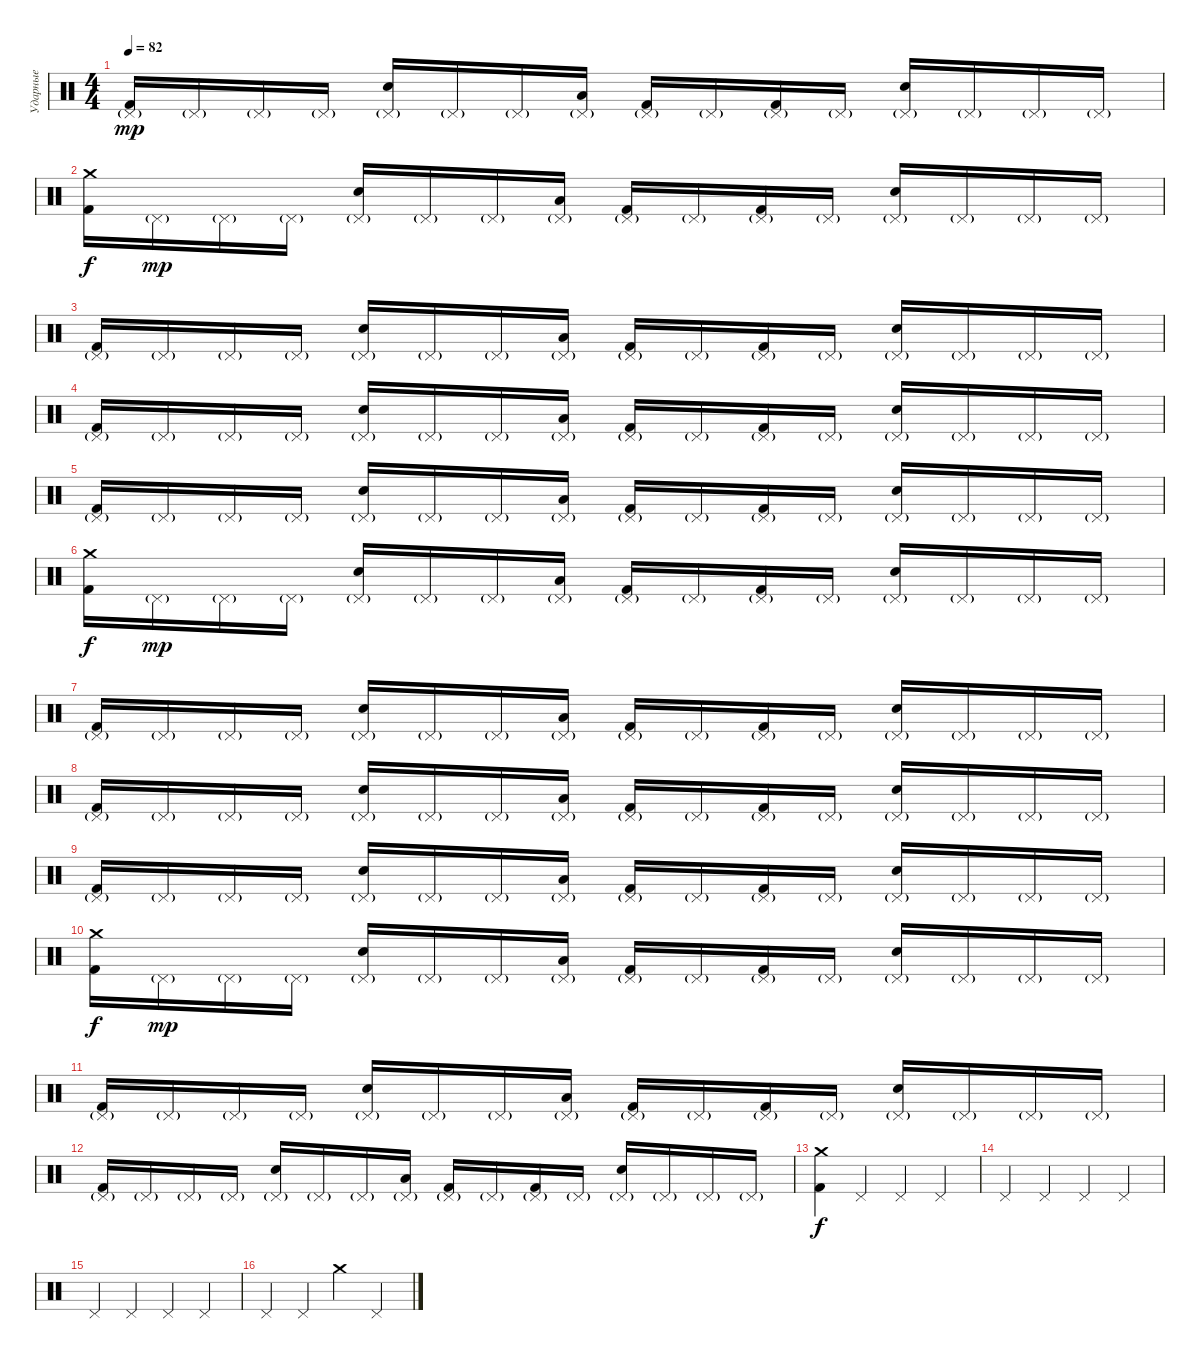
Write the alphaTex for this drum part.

\track ("Ударные" "Ударные") {instrument percussion}
\staff {score}
\articulation defaults
\ts (4 4)
\tempo 82
\clef neutral
\ks c
("Pedal Hi-Hat (hit)"{g} "Kick (hit) 2").16{dy mp} "Pedal Hi-Hat (hit)"{g}.16 "Pedal Hi-Hat (hit)"{g}.16 "Pedal Hi-Hat (hit)"{g}.16 ("Pedal Hi-Hat (hit)"{g} "Electric Snare (hit)").16 "Pedal Hi-Hat (hit)"{g}.16 "Pedal Hi-Hat (hit)"{g}.16 ("Pedal Hi-Hat (hit)"{g} "Low Floor Tom (hit)").16 ("Pedal Hi-Hat (hit)"{g} "Kick (hit) 2").16 "Pedal Hi-Hat (hit)"{g}.16 ("Pedal Hi-Hat (hit)"{g} "Kick (hit) 2").16 "Pedal Hi-Hat (hit)"{g}.16 ("Pedal Hi-Hat (hit)"{g} "Electric Snare (hit)").16 "Pedal Hi-Hat (hit)"{g}.16 "Pedal Hi-Hat (hit)"{g}.16 "Pedal Hi-Hat (hit)"{g}.16 |
("Crash medium (hit)" "Kick (hit) 2").16{dy f} "Pedal Hi-Hat (hit)"{g}.16{dy mp} "Pedal Hi-Hat (hit)"{g}.16 "Pedal Hi-Hat (hit)"{g}.16 ("Pedal Hi-Hat (hit)"{g} "Electric Snare (hit)").16 "Pedal Hi-Hat (hit)"{g}.16 "Pedal Hi-Hat (hit)"{g}.16 ("Pedal Hi-Hat (hit)"{g} "Low Floor Tom (hit)").16 ("Pedal Hi-Hat (hit)"{g} "Kick (hit) 2").16 "Pedal Hi-Hat (hit)"{g}.16 ("Pedal Hi-Hat (hit)"{g} "Kick (hit) 2").16 "Pedal Hi-Hat (hit)"{g}.16 ("Pedal Hi-Hat (hit)"{g} "Electric Snare (hit)").16 "Pedal Hi-Hat (hit)"{g}.16 "Pedal Hi-Hat (hit)"{g}.16 "Pedal Hi-Hat (hit)"{g}.16 |
("Pedal Hi-Hat (hit)"{g} "Kick (hit) 2").16 "Pedal Hi-Hat (hit)"{g}.16 "Pedal Hi-Hat (hit)"{g}.16 "Pedal Hi-Hat (hit)"{g}.16 ("Pedal Hi-Hat (hit)"{g} "Electric Snare (hit)").16 "Pedal Hi-Hat (hit)"{g}.16 "Pedal Hi-Hat (hit)"{g}.16 ("Pedal Hi-Hat (hit)"{g} "Low Floor Tom (hit)").16 ("Pedal Hi-Hat (hit)"{g} "Kick (hit) 2").16 "Pedal Hi-Hat (hit)"{g}.16 ("Pedal Hi-Hat (hit)"{g} "Kick (hit) 2").16 "Pedal Hi-Hat (hit)"{g}.16 ("Pedal Hi-Hat (hit)"{g} "Electric Snare (hit)").16 "Pedal Hi-Hat (hit)"{g}.16 "Pedal Hi-Hat (hit)"{g}.16 "Pedal Hi-Hat (hit)"{g}.16 |
("Pedal Hi-Hat (hit)"{g} "Kick (hit) 2").16 "Pedal Hi-Hat (hit)"{g}.16 "Pedal Hi-Hat (hit)"{g}.16 "Pedal Hi-Hat (hit)"{g}.16 ("Pedal Hi-Hat (hit)"{g} "Electric Snare (hit)").16 "Pedal Hi-Hat (hit)"{g}.16 "Pedal Hi-Hat (hit)"{g}.16 ("Pedal Hi-Hat (hit)"{g} "Low Floor Tom (hit)").16 ("Pedal Hi-Hat (hit)"{g} "Kick (hit) 2").16 "Pedal Hi-Hat (hit)"{g}.16 ("Pedal Hi-Hat (hit)"{g} "Kick (hit) 2").16 "Pedal Hi-Hat (hit)"{g}.16 ("Pedal Hi-Hat (hit)"{g} "Electric Snare (hit)").16 "Pedal Hi-Hat (hit)"{g}.16 "Pedal Hi-Hat (hit)"{g}.16 "Pedal Hi-Hat (hit)"{g}.16 |
("Pedal Hi-Hat (hit)"{g} "Kick (hit) 2").16 "Pedal Hi-Hat (hit)"{g}.16 "Pedal Hi-Hat (hit)"{g}.16 "Pedal Hi-Hat (hit)"{g}.16 ("Pedal Hi-Hat (hit)"{g} "Electric Snare (hit)").16 "Pedal Hi-Hat (hit)"{g}.16 "Pedal Hi-Hat (hit)"{g}.16 ("Pedal Hi-Hat (hit)"{g} "Low Floor Tom (hit)").16 ("Pedal Hi-Hat (hit)"{g} "Kick (hit) 2").16 "Pedal Hi-Hat (hit)"{g}.16 ("Pedal Hi-Hat (hit)"{g} "Kick (hit) 2").16 "Pedal Hi-Hat (hit)"{g}.16 ("Pedal Hi-Hat (hit)"{g} "Electric Snare (hit)").16 "Pedal Hi-Hat (hit)"{g}.16 "Pedal Hi-Hat (hit)"{g}.16 "Pedal Hi-Hat (hit)"{g}.16 |
("Crash medium (hit)" "Kick (hit) 2").16{dy f} "Pedal Hi-Hat (hit)"{g}.16{dy mp} "Pedal Hi-Hat (hit)"{g}.16 "Pedal Hi-Hat (hit)"{g}.16 ("Pedal Hi-Hat (hit)"{g} "Electric Snare (hit)").16 "Pedal Hi-Hat (hit)"{g}.16 "Pedal Hi-Hat (hit)"{g}.16 ("Pedal Hi-Hat (hit)"{g} "Low Floor Tom (hit)").16 ("Pedal Hi-Hat (hit)"{g} "Kick (hit) 2").16 "Pedal Hi-Hat (hit)"{g}.16 ("Pedal Hi-Hat (hit)"{g} "Kick (hit) 2").16 "Pedal Hi-Hat (hit)"{g}.16 ("Pedal Hi-Hat (hit)"{g} "Electric Snare (hit)").16 "Pedal Hi-Hat (hit)"{g}.16 "Pedal Hi-Hat (hit)"{g}.16 "Pedal Hi-Hat (hit)"{g}.16 |
("Pedal Hi-Hat (hit)"{g} "Kick (hit) 2").16 "Pedal Hi-Hat (hit)"{g}.16 "Pedal Hi-Hat (hit)"{g}.16 "Pedal Hi-Hat (hit)"{g}.16 ("Pedal Hi-Hat (hit)"{g} "Electric Snare (hit)").16 "Pedal Hi-Hat (hit)"{g}.16 "Pedal Hi-Hat (hit)"{g}.16 ("Pedal Hi-Hat (hit)"{g} "Low Floor Tom (hit)").16 ("Pedal Hi-Hat (hit)"{g} "Kick (hit) 2").16 "Pedal Hi-Hat (hit)"{g}.16 ("Pedal Hi-Hat (hit)"{g} "Kick (hit) 2").16 "Pedal Hi-Hat (hit)"{g}.16 ("Pedal Hi-Hat (hit)"{g} "Electric Snare (hit)").16 "Pedal Hi-Hat (hit)"{g}.16 "Pedal Hi-Hat (hit)"{g}.16 "Pedal Hi-Hat (hit)"{g}.16 |
("Pedal Hi-Hat (hit)"{g} "Kick (hit) 2").16 "Pedal Hi-Hat (hit)"{g}.16 "Pedal Hi-Hat (hit)"{g}.16 "Pedal Hi-Hat (hit)"{g}.16 ("Pedal Hi-Hat (hit)"{g} "Electric Snare (hit)").16 "Pedal Hi-Hat (hit)"{g}.16 "Pedal Hi-Hat (hit)"{g}.16 ("Pedal Hi-Hat (hit)"{g} "Low Floor Tom (hit)").16 ("Pedal Hi-Hat (hit)"{g} "Kick (hit) 2").16 "Pedal Hi-Hat (hit)"{g}.16 ("Pedal Hi-Hat (hit)"{g} "Kick (hit) 2").16 "Pedal Hi-Hat (hit)"{g}.16 ("Pedal Hi-Hat (hit)"{g} "Electric Snare (hit)").16 "Pedal Hi-Hat (hit)"{g}.16 "Pedal Hi-Hat (hit)"{g}.16 "Pedal Hi-Hat (hit)"{g}.16 |
("Pedal Hi-Hat (hit)"{g} "Kick (hit) 2").16 "Pedal Hi-Hat (hit)"{g}.16 "Pedal Hi-Hat (hit)"{g}.16 "Pedal Hi-Hat (hit)"{g}.16 ("Pedal Hi-Hat (hit)"{g} "Electric Snare (hit)").16 "Pedal Hi-Hat (hit)"{g}.16 "Pedal Hi-Hat (hit)"{g}.16 ("Pedal Hi-Hat (hit)"{g} "Low Floor Tom (hit)").16 ("Pedal Hi-Hat (hit)"{g} "Kick (hit) 2").16 "Pedal Hi-Hat (hit)"{g}.16 ("Pedal Hi-Hat (hit)"{g} "Kick (hit) 2").16 "Pedal Hi-Hat (hit)"{g}.16 ("Pedal Hi-Hat (hit)"{g} "Electric Snare (hit)").16 "Pedal Hi-Hat (hit)"{g}.16 "Pedal Hi-Hat (hit)"{g}.16 "Pedal Hi-Hat (hit)"{g}.16 |
("Crash medium (hit)" "Kick (hit) 2").16{dy f} "Pedal Hi-Hat (hit)"{g}.16{dy mp} "Pedal Hi-Hat (hit)"{g}.16 "Pedal Hi-Hat (hit)"{g}.16 ("Pedal Hi-Hat (hit)"{g} "Electric Snare (hit)").16 "Pedal Hi-Hat (hit)"{g}.16 "Pedal Hi-Hat (hit)"{g}.16 ("Pedal Hi-Hat (hit)"{g} "Low Floor Tom (hit)").16 ("Pedal Hi-Hat (hit)"{g} "Kick (hit) 2").16 "Pedal Hi-Hat (hit)"{g}.16 ("Pedal Hi-Hat (hit)"{g} "Kick (hit) 2").16 "Pedal Hi-Hat (hit)"{g}.16 ("Pedal Hi-Hat (hit)"{g} "Electric Snare (hit)").16 "Pedal Hi-Hat (hit)"{g}.16 "Pedal Hi-Hat (hit)"{g}.16 "Pedal Hi-Hat (hit)"{g}.16 |
("Pedal Hi-Hat (hit)"{g} "Kick (hit) 2").16 "Pedal Hi-Hat (hit)"{g}.16 "Pedal Hi-Hat (hit)"{g}.16 "Pedal Hi-Hat (hit)"{g}.16 ("Pedal Hi-Hat (hit)"{g} "Electric Snare (hit)").16 "Pedal Hi-Hat (hit)"{g}.16 "Pedal Hi-Hat (hit)"{g}.16 ("Pedal Hi-Hat (hit)"{g} "Low Floor Tom (hit)").16 ("Pedal Hi-Hat (hit)"{g} "Kick (hit) 2").16 "Pedal Hi-Hat (hit)"{g}.16 ("Pedal Hi-Hat (hit)"{g} "Kick (hit) 2").16 "Pedal Hi-Hat (hit)"{g}.16 ("Pedal Hi-Hat (hit)"{g} "Electric Snare (hit)").16 "Pedal Hi-Hat (hit)"{g}.16 "Pedal Hi-Hat (hit)"{g}.16 "Pedal Hi-Hat (hit)"{g}.16 |
("Pedal Hi-Hat (hit)"{g} "Kick (hit) 2").16 "Pedal Hi-Hat (hit)"{g}.16 "Pedal Hi-Hat (hit)"{g}.16 "Pedal Hi-Hat (hit)"{g}.16 ("Pedal Hi-Hat (hit)"{g} "Electric Snare (hit)").16 "Pedal Hi-Hat (hit)"{g}.16 "Pedal Hi-Hat (hit)"{g}.16 ("Pedal Hi-Hat (hit)"{g} "Low Floor Tom (hit)").16 ("Pedal Hi-Hat (hit)"{g} "Kick (hit) 2").16 "Pedal Hi-Hat (hit)"{g}.16 ("Pedal Hi-Hat (hit)"{g} "Kick (hit) 2").16 "Pedal Hi-Hat (hit)"{g}.16 ("Pedal Hi-Hat (hit)"{g} "Electric Snare (hit)").16 "Pedal Hi-Hat (hit)"{g}.16 "Pedal Hi-Hat (hit)"{g}.16 "Pedal Hi-Hat (hit)"{g}.16 |
("Crash medium (hit)" "Kick (hit) 2").4{dy f} "Pedal Hi-Hat (hit)".4 "Pedal Hi-Hat (hit)".4 "Pedal Hi-Hat (hit)".4 |
"Pedal Hi-Hat (hit)".4 "Pedal Hi-Hat (hit)".4 "Pedal Hi-Hat (hit)".4 "Pedal Hi-Hat (hit)".4 |
"Pedal Hi-Hat (hit)".4 "Pedal Hi-Hat (hit)".4 "Pedal Hi-Hat (hit)".4 "Pedal Hi-Hat (hit)".4 |
"Pedal Hi-Hat (hit)".4 "Pedal Hi-Hat (hit)".4 "Crash medium (hit)".4 "Pedal Hi-Hat (hit)".4
